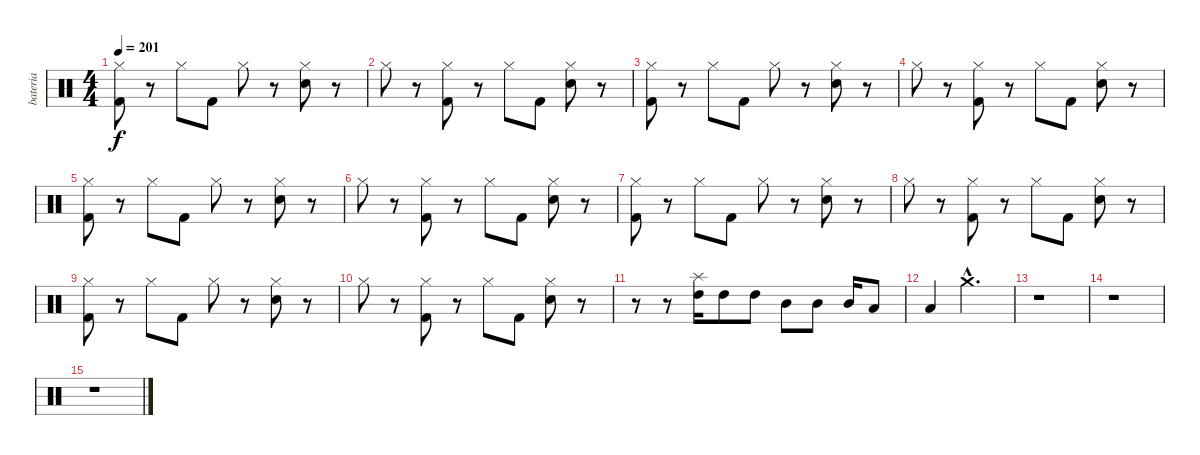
\track ("bateria" "bateria") {instrument percussion}
\staff {score}
\articulation defaults
\ts (4 4)
\tempo 201
\clef neutral
\ks c
("Hi-Hat (closed)" "Kick (hit) 2").8{dy f} r.8 "Hi-Hat (closed)".8 "Kick (hit) 2".8 "Hi-Hat (closed)".8 r.8 ("Hi-Hat (closed)" "Electric Snare (hit)").8 r.8 |
"Hi-Hat (closed)".8 r.8 ("Hi-Hat (closed)" "Kick (hit) 2").8 r.8 "Hi-Hat (closed)".8 "Kick (hit) 2".8 ("Hi-Hat (closed)" "Electric Snare (hit)").8 r.8 |
("Hi-Hat (closed)" "Kick (hit) 2").8 r.8 "Hi-Hat (closed)".8 "Kick (hit) 2".8 "Hi-Hat (closed)".8 r.8 ("Hi-Hat (closed)" "Electric Snare (hit)").8 r.8 |
"Hi-Hat (closed)".8 r.8 ("Hi-Hat (closed)" "Kick (hit) 2").8 r.8 "Hi-Hat (closed)".8 "Kick (hit) 2".8 ("Hi-Hat (closed)" "Electric Snare (hit)").8 r.8 |
("Hi-Hat (closed)" "Kick (hit) 2").8 r.8 "Hi-Hat (closed)".8 "Kick (hit) 2".8 "Hi-Hat (closed)".8 r.8 ("Hi-Hat (closed)" "Electric Snare (hit)").8 r.8 |
"Hi-Hat (closed)".8 r.8 ("Hi-Hat (closed)" "Kick (hit) 2").8 r.8 "Hi-Hat (closed)".8 "Kick (hit) 2".8 ("Hi-Hat (closed)" "Electric Snare (hit)").8 r.8 |
("Hi-Hat (closed)" "Kick (hit) 2").8 r.8 "Hi-Hat (closed)".8 "Kick (hit) 2".8 "Hi-Hat (closed)".8 r.8 ("Hi-Hat (closed)" "Electric Snare (hit)").8 r.8 |
"Hi-Hat (closed)".8 r.8 ("Hi-Hat (closed)" "Kick (hit) 2").8 r.8 "Hi-Hat (closed)".8 "Kick (hit) 2".8 ("Hi-Hat (closed)" "Electric Snare (hit)").8 r.8 |
("Hi-Hat (closed)" "Kick (hit) 2").8 r.8 "Hi-Hat (closed)".8 "Kick (hit) 2".8 "Hi-Hat (closed)".8 r.8 ("Hi-Hat (closed)" "Electric Snare (hit)").8 r.8 |
"Hi-Hat (closed)".8 r.8 ("Hi-Hat (closed)" "Kick (hit) 2").8 r.8 "Hi-Hat (closed)".8 "Kick (hit) 2".8 ("Hi-Hat (closed)" "Electric Snare (hit)").8 r.8 |
r.8 r.8 ("High Tom (hit)" "Splash (hit)").16 "High Tom (hit)".8 "High Tom (hit)".8 "Mid Tom (hit)".8 "Mid Tom (hit)".8 "Mid Tom (hit)".16 "Low Tom (hit)".8 |
"Low Tom (hit)".4 "Crash medium (hit)"{hac}.2{d} |
r.1 |
r.1 |
r.1
